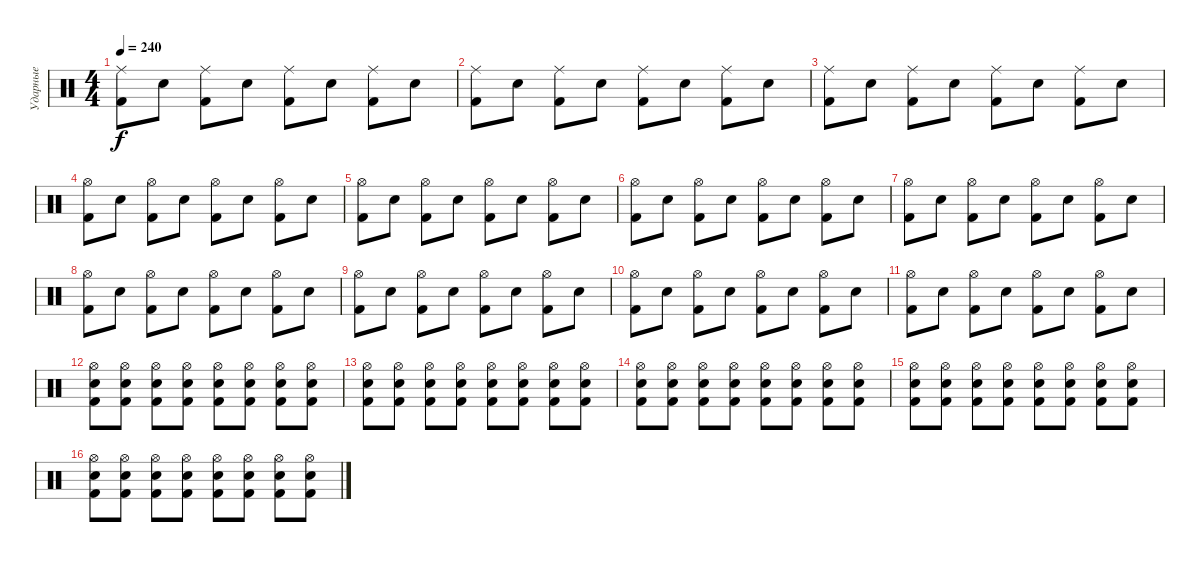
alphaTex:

\track ("Ударные" "Ударные") {instrument percussion}
\staff {score}
\articulation defaults
\ts (4 4)
\tempo 240
\clef neutral
\ks c
("Kick (hit) 2" "Ride (middle)").8{dy f} "Electric Snare (hit)".8 ("Kick (hit) 2" "Ride (middle)").8 "Electric Snare (hit)".8 ("Kick (hit) 2" "Ride (middle)").8 "Electric Snare (hit)".8 ("Kick (hit) 2" "Ride (middle)").8 "Electric Snare (hit)".8 |
("Kick (hit) 2" "Ride (middle)").8 "Electric Snare (hit)".8 ("Kick (hit) 2" "Ride (middle)").8 "Electric Snare (hit)".8 ("Kick (hit) 2" "Ride (middle)").8 "Electric Snare (hit)".8 ("Kick (hit) 2" "Ride (middle)").8 "Electric Snare (hit)".8 |
("Kick (hit) 2" "Ride (middle)").8 "Electric Snare (hit)".8 ("Kick (hit) 2" "Ride (middle)").8 "Electric Snare (hit)".8 ("Kick (hit) 2" "Ride (middle)").8 "Electric Snare (hit)".8 ("Kick (hit) 2" "Ride (middle)").8 "Electric Snare (hit)".8 |
("Kick (hit) 2" "Hi-Hat (open)").8 "Electric Snare (hit)".8 ("Kick (hit) 2" "Hi-Hat (open)").8 "Electric Snare (hit)".8 ("Kick (hit) 2" "Hi-Hat (open)").8 "Electric Snare (hit)".8 ("Kick (hit) 2" "Hi-Hat (open)").8 "Electric Snare (hit)".8 |
("Kick (hit) 2" "Hi-Hat (open)").8 "Electric Snare (hit)".8 ("Kick (hit) 2" "Hi-Hat (open)").8 "Electric Snare (hit)".8 ("Kick (hit) 2" "Hi-Hat (open)").8 "Electric Snare (hit)".8 ("Kick (hit) 2" "Hi-Hat (open)").8 "Electric Snare (hit)".8 |
("Kick (hit) 2" "Hi-Hat (open)").8 "Electric Snare (hit)".8 ("Kick (hit) 2" "Hi-Hat (open)").8 "Electric Snare (hit)".8 ("Kick (hit) 2" "Hi-Hat (open)").8 "Electric Snare (hit)".8 ("Kick (hit) 2" "Hi-Hat (open)").8 "Electric Snare (hit)".8 |
("Kick (hit) 2" "Hi-Hat (open)").8 "Electric Snare (hit)".8 ("Kick (hit) 2" "Hi-Hat (open)").8 "Electric Snare (hit)".8 ("Kick (hit) 2" "Hi-Hat (open)").8 "Electric Snare (hit)".8 ("Kick (hit) 2" "Hi-Hat (open)").8 "Electric Snare (hit)".8 |
("Kick (hit) 2" "Hi-Hat (open)").8 "Electric Snare (hit)".8 ("Kick (hit) 2" "Hi-Hat (open)").8 "Electric Snare (hit)".8 ("Kick (hit) 2" "Hi-Hat (open)").8 "Electric Snare (hit)".8 ("Kick (hit) 2" "Hi-Hat (open)").8 "Electric Snare (hit)".8 |
("Kick (hit) 2" "Hi-Hat (open)").8 "Electric Snare (hit)".8 ("Kick (hit) 2" "Hi-Hat (open)").8 "Electric Snare (hit)".8 ("Kick (hit) 2" "Hi-Hat (open)").8 "Electric Snare (hit)".8 ("Kick (hit) 2" "Hi-Hat (open)").8 "Electric Snare (hit)".8 |
("Kick (hit) 2" "Hi-Hat (open)").8 "Electric Snare (hit)".8 ("Kick (hit) 2" "Hi-Hat (open)").8 "Electric Snare (hit)".8 ("Kick (hit) 2" "Hi-Hat (open)").8 "Electric Snare (hit)".8 ("Kick (hit) 2" "Hi-Hat (open)").8 "Electric Snare (hit)".8 |
("Kick (hit) 2" "Hi-Hat (open)").8 "Electric Snare (hit)".8 ("Kick (hit) 2" "Hi-Hat (open)").8 "Electric Snare (hit)".8 ("Kick (hit) 2" "Hi-Hat (open)").8 "Electric Snare (hit)".8 ("Kick (hit) 2" "Hi-Hat (open)").8 "Electric Snare (hit)".8 |
("Electric Snare (hit)" "Kick (hit) 2" "Hi-Hat (open)").8 ("Hi-Hat (open)" "Kick (hit) 2" "Electric Snare (hit)").8 ("Electric Snare (hit)" "Kick (hit) 2" "Hi-Hat (open)").8 ("Hi-Hat (open)" "Kick (hit) 2" "Electric Snare (hit)").8 ("Electric Snare (hit)" "Kick (hit) 2" "Hi-Hat (open)").8 ("Hi-Hat (open)" "Kick (hit) 2" "Electric Snare (hit)").8 ("Electric Snare (hit)" "Kick (hit) 2" "Hi-Hat (open)").8 ("Hi-Hat (open)" "Kick (hit) 2" "Electric Snare (hit)").8 |
("Electric Snare (hit)" "Kick (hit) 2" "Hi-Hat (open)").8 ("Hi-Hat (open)" "Kick (hit) 2" "Electric Snare (hit)").8 ("Electric Snare (hit)" "Kick (hit) 2" "Hi-Hat (open)").8 ("Hi-Hat (open)" "Kick (hit) 2" "Electric Snare (hit)").8 ("Electric Snare (hit)" "Kick (hit) 2" "Hi-Hat (open)").8 ("Hi-Hat (open)" "Kick (hit) 2" "Electric Snare (hit)").8 ("Electric Snare (hit)" "Kick (hit) 2" "Hi-Hat (open)").8 ("Hi-Hat (open)" "Kick (hit) 2" "Electric Snare (hit)").8 |
("Electric Snare (hit)" "Kick (hit) 2" "Hi-Hat (open)").8 ("Hi-Hat (open)" "Kick (hit) 2" "Electric Snare (hit)").8 ("Electric Snare (hit)" "Kick (hit) 2" "Hi-Hat (open)").8 ("Hi-Hat (open)" "Kick (hit) 2" "Electric Snare (hit)").8 ("Electric Snare (hit)" "Kick (hit) 2" "Hi-Hat (open)").8 ("Hi-Hat (open)" "Kick (hit) 2" "Electric Snare (hit)").8 ("Electric Snare (hit)" "Kick (hit) 2" "Hi-Hat (open)").8 ("Hi-Hat (open)" "Kick (hit) 2" "Electric Snare (hit)").8 |
("Electric Snare (hit)" "Kick (hit) 2" "Hi-Hat (open)").8 ("Hi-Hat (open)" "Kick (hit) 2" "Electric Snare (hit)").8 ("Electric Snare (hit)" "Kick (hit) 2" "Hi-Hat (open)").8 ("Hi-Hat (open)" "Kick (hit) 2" "Electric Snare (hit)").8 ("Electric Snare (hit)" "Kick (hit) 2" "Hi-Hat (open)").8 ("Hi-Hat (open)" "Kick (hit) 2" "Electric Snare (hit)").8 ("Electric Snare (hit)" "Kick (hit) 2" "Hi-Hat (open)").8 ("Hi-Hat (open)" "Kick (hit) 2" "Electric Snare (hit)").8 |
("Electric Snare (hit)" "Kick (hit) 2" "Hi-Hat (open)").8 ("Hi-Hat (open)" "Kick (hit) 2" "Electric Snare (hit)").8 ("Electric Snare (hit)" "Kick (hit) 2" "Hi-Hat (open)").8 ("Hi-Hat (open)" "Kick (hit) 2" "Electric Snare (hit)").8 ("Electric Snare (hit)" "Kick (hit) 2" "Hi-Hat (open)").8 ("Hi-Hat (open)" "Kick (hit) 2" "Electric Snare (hit)").8 ("Electric Snare (hit)" "Kick (hit) 2" "Hi-Hat (open)").8 ("Hi-Hat (open)" "Kick (hit) 2" "Electric Snare (hit)").8
